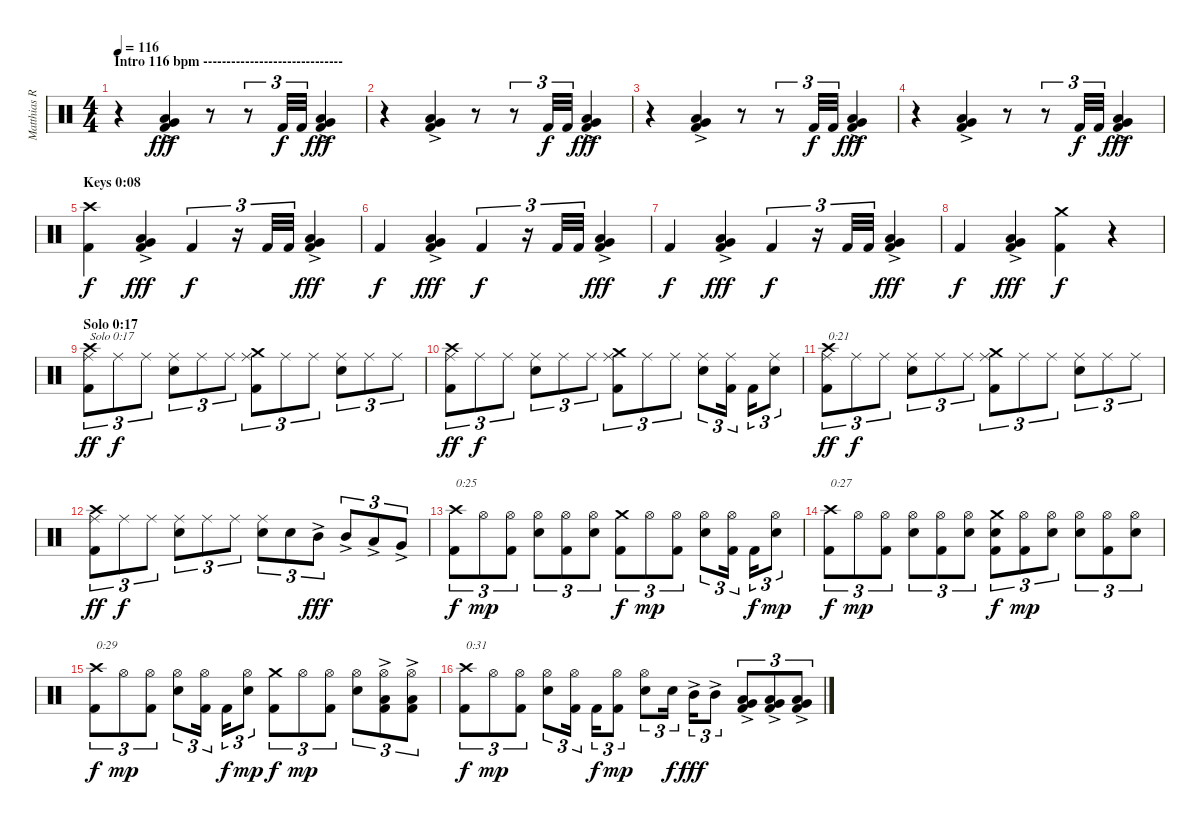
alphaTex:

\track ("Matthias R." "Matthias R") {instrument percussion}
\staff {score}
\articulation defaults
\ts (4 4)
\section ("" "Intro 116 bpm ------------------------------")
\tempo 116
\clef neutral
\ks c
r.4{dy fff} ("Kick (hit) 2" "Low Tom (hit)"{ac} "Very Low Tom (hit)"{ac}).4 r.8 r.8{tu (3 2)} "Kick (hit) 2".32{tu (3 2) dy f} "Kick (hit) 2".32{tu (3 2)} ("Kick (hit) 2" "Low Tom (hit)"{ac} "Very Low Tom (hit)"{ac}).4{dy fff} |
r.4 ("Kick (hit) 2" "Low Tom (hit)"{ac} "Very Low Tom (hit)"{ac}).4 r.8 r.8{tu (3 2)} "Kick (hit) 2".32{tu (3 2) dy f} "Kick (hit) 2".32{tu (3 2)} ("Kick (hit) 2" "Low Tom (hit)"{ac} "Very Low Tom (hit)"{ac}).4{dy fff} |
r.4 ("Kick (hit) 2" "Low Tom (hit)"{ac} "Very Low Tom (hit)"{ac}).4 r.8 r.8{tu (3 2)} "Kick (hit) 2".32{tu (3 2) dy f} "Kick (hit) 2".32{tu (3 2)} ("Kick (hit) 2" "Low Tom (hit)"{ac} "Very Low Tom (hit)"{ac}).4{dy fff} |
r.4 ("Kick (hit) 2" "Low Tom (hit)"{ac} "Very Low Tom (hit)"{ac}).4 r.8 r.8{tu (3 2)} "Kick (hit) 2".32{tu (3 2) dy f} "Kick (hit) 2".32{tu (3 2)} ("Kick (hit) 2" "Low Tom (hit)"{ac} "Very Low Tom (hit)"{ac}).4{dy fff} |
\section ("" "Keys 0:08")
("Kick (hit) 2" "Crash high (hit)").4{dy f} ("Kick (hit) 2" "Low Tom (hit)"{ac} "Very Low Tom (hit)"{ac}).4{dy fff} "Kick (hit) 2".4{tu (3 2) dy f} r.16{tu (3 2)} "Kick (hit) 2".32{tu (3 2)} "Kick (hit) 2".32{tu (3 2)} ("Kick (hit) 2" "Low Tom (hit)"{ac} "Very Low Tom (hit)"{ac}).4{dy fff} |
"Kick (hit) 2".4{dy f} ("Kick (hit) 2" "Low Tom (hit)"{ac} "Very Low Tom (hit)"{ac}).4{dy fff} "Kick (hit) 2".4{tu (3 2) dy f} r.16{tu (3 2)} "Kick (hit) 2".32{tu (3 2)} "Kick (hit) 2".32{tu (3 2)} ("Kick (hit) 2" "Low Tom (hit)"{ac} "Very Low Tom (hit)"{ac}).4{dy fff} |
"Kick (hit) 2".4{dy f} ("Kick (hit) 2" "Low Tom (hit)"{ac} "Very Low Tom (hit)"{ac}).4{dy fff} "Kick (hit) 2".4{tu (3 2) dy f} r.16{tu (3 2)} "Kick (hit) 2".32{tu (3 2)} "Kick (hit) 2".32{tu (3 2)} ("Kick (hit) 2" "Low Tom (hit)"{ac} "Very Low Tom (hit)"{ac}).4{dy fff} |
"Kick (hit) 2".4{dy f} ("Kick (hit) 2" "Low Tom (hit)"{ac} "Very Low Tom (hit)"{ac}).4{dy fff} ("Kick (hit) 2" "Crash medium (hit)").4{dy f} r.4 |
\section ("" "Solo 0:17")
("Kick (hit) 2" "Ride (middle)" "Crash high (hit)").8{tu (3 2) txt "Solo 0:17" dy ff} "Ride (middle)".8{tu (3 2) dy f} "Ride (middle)".8{tu (3 2)} ("Electric Snare (hit)" "Ride (middle)").8{tu (3 2)} "Ride (middle)".8{tu (3 2)} "Ride (middle)".8{tu (3 2)} ("Kick (hit) 2" "Ride (middle)" "Crash medium (hit)").8{tu (3 2)} "Ride (middle)".8{tu (3 2)} "Ride (middle)".8{tu (3 2)} ("Electric Snare (hit)" "Ride (middle)").8{tu (3 2)} "Ride (middle)".8{tu (3 2)} "Ride (middle)".8{tu (3 2)} |
("Kick (hit) 2" "Ride (middle)" "Crash high (hit)").8{tu (3 2) dy ff} "Ride (middle)".8{tu (3 2) dy f} "Ride (middle)".8{tu (3 2)} ("Electric Snare (hit)" "Ride (middle)").8{tu (3 2)} "Ride (middle)".8{tu (3 2)} "Ride (middle)".8{tu (3 2)} ("Kick (hit) 2" "Ride (middle)" "Crash medium (hit)").8{tu (3 2)} "Ride (middle)".8{tu (3 2)} "Ride (middle)".8{tu (3 2)} ("Electric Snare (hit)" "Ride (middle)").8{tu (3 2)} ("Kick (hit) 2" "Ride (middle)").16{tu (3 2)} "Kick (hit) 2".16{tu (3 2)} ("Electric Snare (hit)" "Ride (middle)").8{tu (3 2)} |
("Kick (hit) 2" "Ride (middle)" "Crash high (hit)").8{tu (3 2) txt "0:21" dy ff} "Ride (middle)".8{tu (3 2) dy f} "Ride (middle)".8{tu (3 2)} ("Electric Snare (hit)" "Ride (middle)").8{tu (3 2)} "Ride (middle)".8{tu (3 2)} "Ride (middle)".8{tu (3 2)} ("Kick (hit) 2" "Ride (middle)" "Crash medium (hit)").8{tu (3 2)} "Ride (middle)".8{tu (3 2)} "Ride (middle)".8{tu (3 2)} ("Electric Snare (hit)" "Ride (middle)").8{tu (3 2)} "Ride (middle)".8{tu (3 2)} "Ride (middle)".8{tu (3 2)} |
("Kick (hit) 2" "Ride (middle)" "Crash high (hit)").8{tu (3 2) dy ff} "Ride (middle)".8{tu (3 2) dy f} "Ride (middle)".8{tu (3 2)} ("Electric Snare (hit)" "Ride (middle)").8{tu (3 2)} "Ride (middle)".8{tu (3 2)} "Ride (middle)".8{tu (3 2)} ("Electric Snare (hit)" "Ride (middle)").8{tu (3 2)} "Electric Snare (hit)".8{tu (3 2)} "Mid Tom (hit)"{ac}.8{tu (3 2) dy fff} "Mid Tom (hit)"{ac}.8{tu (3 2)} "Low Tom (hit)"{ac}.8{tu (3 2)} "Very Low Tom (hit)"{ac}.8{tu (3 2)} |
("Kick (hit) 2" "Crash high (hit)").8{tu (3 2) txt "0:25" dy f} "Hi-Hat (open)".8{tu (3 2) dy mp} ("Kick (hit) 2" "Hi-Hat (open)").8{tu (3 2)} ("Electric Snare (hit)" "Hi-Hat (open)").8{tu (3 2)} ("Kick (hit) 2" "Hi-Hat (open)").8{tu (3 2)} ("Electric Snare (hit)" "Hi-Hat (open)").8{tu (3 2)} ("Kick (hit) 2" "Crash medium (hit)").8{tu (3 2) dy f} "Hi-Hat (open)".8{tu (3 2) dy mp} ("Kick (hit) 2" "Hi-Hat (open)").8{tu (3 2)} ("Electric Snare (hit)" "Hi-Hat (open)").8{tu (3 2)} ("Kick (hit) 2" "Hi-Hat (open)").16{tu (3 2)} "Kick (hit) 2".16{tu (3 2) dy f} ("Electric Snare (hit)" "Hi-Hat (open)").8{tu (3 2) dy mp} |
("Kick (hit) 2" "Crash high (hit)").8{tu (3 2) txt "0:27" dy f} "Hi-Hat (open)".8{tu (3 2) dy mp} ("Kick (hit) 2" "Hi-Hat (open)").8{tu (3 2)} ("Electric Snare (hit)" "Hi-Hat (open)").8{tu (3 2)} ("Kick (hit) 2" "Hi-Hat (open)").8{tu (3 2)} ("Electric Snare (hit)" "Hi-Hat (open)").8{tu (3 2)} ("Kick (hit) 2" "Electric Snare (hit)" "Crash medium (hit)").8{tu (3 2) dy f} ("Kick (hit) 2" "Hi-Hat (open)").8{tu (3 2) dy mp} ("Electric Snare (hit)" "Hi-Hat (open)").8{tu (3 2)} ("Electric Snare (hit)" "Hi-Hat (open)").8{tu (3 2)} ("Kick (hit) 2" "Hi-Hat (open)").8{tu (3 2)} ("Electric Snare (hit)" "Hi-Hat (open)").8{tu (3 2)} |
("Kick (hit) 2" "Crash high (hit)").8{tu (3 2) txt "0:29" dy f} "Hi-Hat (open)".8{tu (3 2) dy mp} ("Kick (hit) 2" "Hi-Hat (open)").8{tu (3 2)} ("Electric Snare (hit)" "Hi-Hat (open)").8{tu (3 2)} ("Kick (hit) 2" "Hi-Hat (open)").16{tu (3 2)} "Kick (hit) 2".16{tu (3 2) dy f} ("Electric Snare (hit)" "Hi-Hat (open)").8{tu (3 2) dy mp} ("Kick (hit) 2" "Crash medium (hit)").8{tu (3 2) dy f} "Hi-Hat (open)".8{tu (3 2) dy mp} ("Kick (hit) 2" "Hi-Hat (open)").8{tu (3 2)} ("Electric Snare (hit)" "Hi-Hat (open)").8{tu (3 2)} ("Kick (hit) 2" "Low Tom (hit)"{ac} "Hi-Hat (open)").8{tu (3 2)} ("Kick (hit) 2" "Low Tom (hit)"{ac} "Hi-Hat (open)").8{tu (3 2)} |
("Kick (hit) 2" "Crash high (hit)").8{tu (3 2) txt "0:31" dy f} "Hi-Hat (open)".8{tu (3 2) dy mp} ("Kick (hit) 2" "Hi-Hat (open)").8{tu (3 2)} ("Electric Snare (hit)" "Hi-Hat (open)").8{tu (3 2)} ("Kick (hit) 2" "Hi-Hat (open)").16{tu (3 2)} "Kick (hit) 2".16{tu (3 2) dy f} ("Kick (hit) 2" "Hi-Hat (open)").8{tu (3 2) dy mp} ("Electric Snare (hit)" "Hi-Hat (open)").8{tu (3 2)} "Electric Snare (hit)".16{tu (3 2) dy f} "Mid Tom (hit)"{ac}.16{tu (3 2) dy fff} "Mid Tom (hit)"{ac}.8{tu (3 2)} ("Kick (hit) 2" "Very Low Tom (hit)"{ac} "Low Tom (hit)"{ac}).8{tu (3 2)} ("Kick (hit) 2" "Very Low Tom (hit)"{ac} "Low Tom (hit)"{ac}).8{tu (3 2)} ("Kick (hit) 2" "Very Low Tom (hit)"{ac} "Low Tom (hit)"{ac}).8{tu (3 2)}
